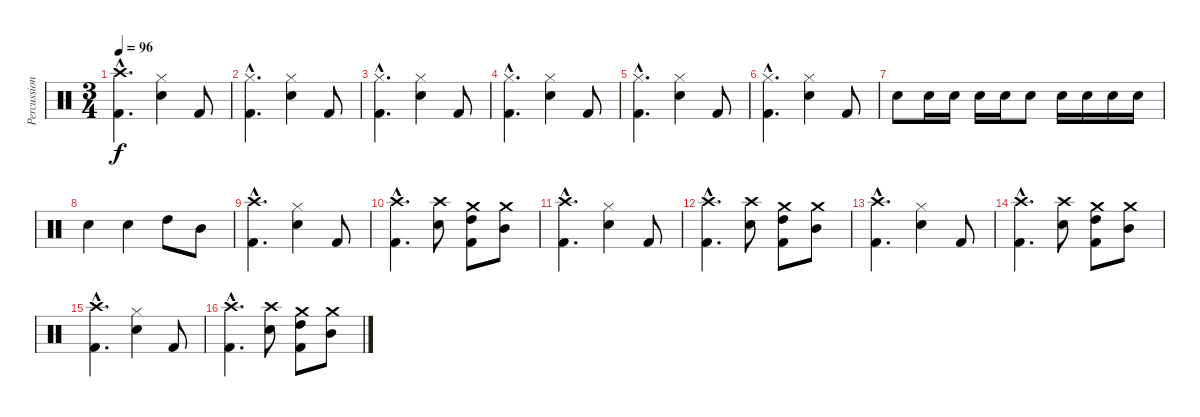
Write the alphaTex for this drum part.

\track ("Percussions" "Percussion") {instrument percussion}
\staff {score}
\articulation defaults
\ts (3 4)
\tempo 96
\clef neutral
\ks c
("Crash high (hit)"{hac} "Kick (hit) 2"{hac}).4{d dy f} ("Hi-Hat (closed)" "Snare (hit) 2").4 "Kick (hit) 2".8 |
("Hi-Hat (closed)"{hac} "Kick (hit) 2"{hac}).4{d} ("Hi-Hat (closed)" "Snare (hit) 2").4 "Kick (hit) 2".8 |
("Hi-Hat (closed)"{hac} "Kick (hit) 2"{hac}).4{d} ("Hi-Hat (closed)" "Snare (hit) 2").4 "Kick (hit) 2".8 |
("Hi-Hat (closed)"{hac} "Kick (hit) 2"{hac}).4{d} ("Hi-Hat (closed)" "Snare (hit) 2").4 "Kick (hit) 2".8 |
("Hi-Hat (closed)"{hac} "Kick (hit) 2"{hac}).4{d} ("Hi-Hat (closed)" "Snare (hit) 2").4 "Kick (hit) 2".8 |
("Hi-Hat (closed)"{hac} "Kick (hit) 2"{hac}).4{d} ("Hi-Hat (closed)" "Snare (hit) 2").4 "Kick (hit) 2".8 |
"Snare (hit) 2".8 "Snare (hit) 2".16 "Snare (hit) 2".16 "Snare (hit) 2".16 "Snare (hit) 2".16 "Snare (hit) 2".8 "Snare (hit) 2".16 "Snare (hit) 2".16 "Snare (hit) 2".16 "Snare (hit) 2".16 |
"Snare (hit) 2".4 "Snare (hit) 2".4 "High Tom (hit)".8 "Mid Tom (hit)".8 |
("Crash high (hit)"{hac} "Kick (hit) 2"{hac}).4{d} ("Hi-Hat (closed)" "Snare (hit) 2").4 "Kick (hit) 2".8 |
("Crash high (hit)"{hac} "Kick (hit) 2"{hac}).4{d} ("Crash high (hit)" "Snare (hit) 2").8 ("Crash medium (hit)" "High Tom (hit)" "Kick (hit) 2").8 ("Crash medium (hit)" "Mid Tom (hit)").8 |
("Crash high (hit)"{hac} "Kick (hit) 2"{hac}).4{d} ("Hi-Hat (closed)" "Snare (hit) 2").4 "Kick (hit) 2".8 |
("Crash high (hit)"{hac} "Kick (hit) 2"{hac}).4{d} ("Crash high (hit)" "Snare (hit) 2").8 ("Crash medium (hit)" "High Tom (hit)" "Kick (hit) 2").8 ("Crash medium (hit)" "Mid Tom (hit)").8 |
("Crash high (hit)"{hac} "Kick (hit) 2"{hac}).4{d} ("Hi-Hat (closed)" "Snare (hit) 2").4 "Kick (hit) 2".8 |
("Crash high (hit)"{hac} "Kick (hit) 2"{hac}).4{d} ("Crash high (hit)" "Snare (hit) 2").8 ("Crash medium (hit)" "High Tom (hit)" "Kick (hit) 2").8 ("Crash medium (hit)" "Mid Tom (hit)").8 |
("Crash high (hit)"{hac} "Kick (hit) 2"{hac}).4{d} ("Hi-Hat (closed)" "Snare (hit) 2").4 "Kick (hit) 2".8 |
("Crash high (hit)"{hac} "Kick (hit) 2"{hac}).4{d} ("Crash high (hit)" "Snare (hit) 2").8 ("Crash medium (hit)" "High Tom (hit)" "Kick (hit) 2").8 ("Crash medium (hit)" "Mid Tom (hit)").8
